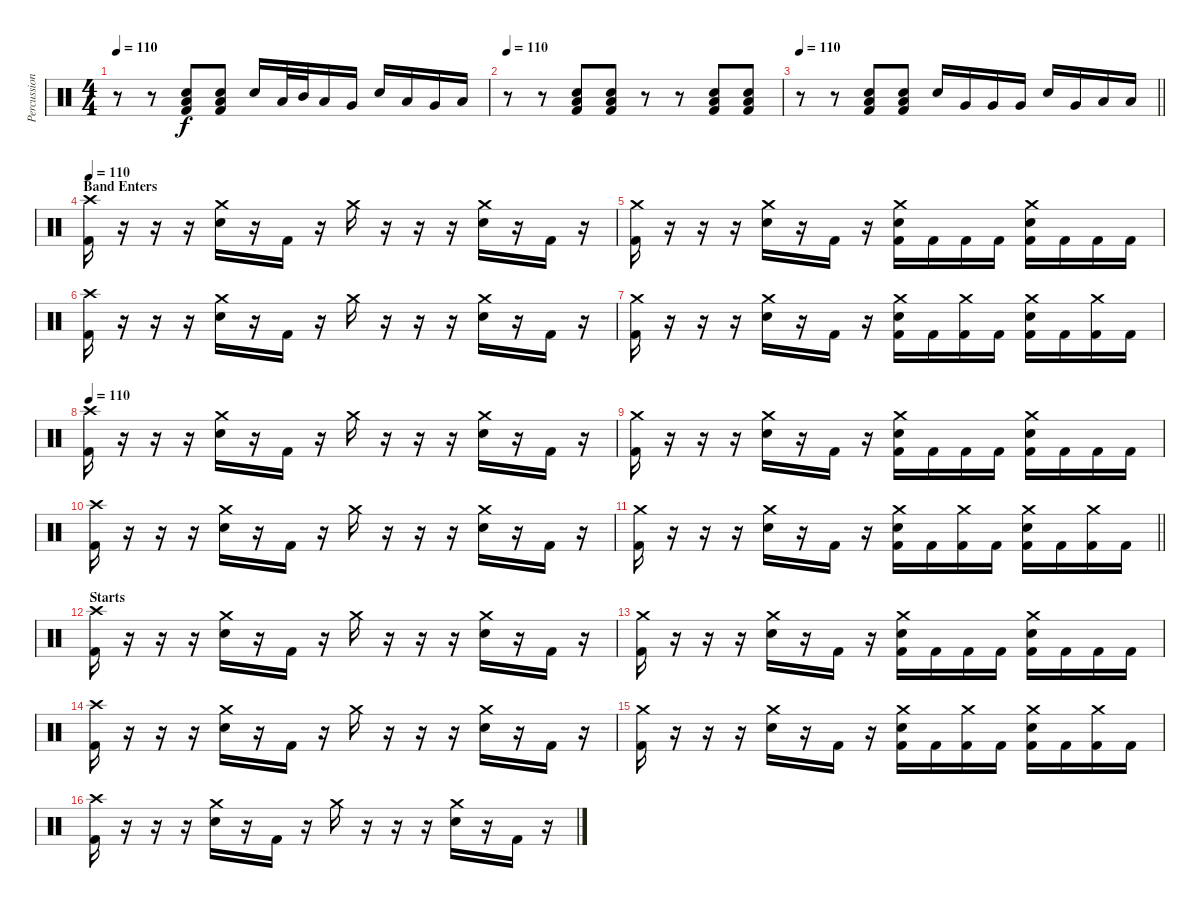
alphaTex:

\track ("Percussion" "Percussion") {instrument percussion}
\staff {score}
\articulation defaults
\ts (4 4)
\tempo 110
\clef neutral
\ks c
r.8{dy f} r.8 ("Low Floor Tom (hit)" "Electric Snare (hit)" "Kick (hit) 2").8 ("Low Floor Tom (hit)" "Electric Snare (hit)" "Kick (hit) 2").8 "Snare (hit) 2".16 "Low Tom (hit)".32 "Mid Tom (hit)".32 "Low Tom (hit)".16 "Very Low Tom (hit)".16 "Snare (hit) 2".16 "Low Tom (hit)".16 "Very Low Tom (hit)".16 "Low Floor Tom (hit)".16 |
\tempo 110
r.8 r.8 ("Low Floor Tom (hit)" "Electric Snare (hit)" "Kick (hit) 2").8 ("Low Floor Tom (hit)" "Electric Snare (hit)" "Kick (hit) 2").8 r.8 r.8 ("Low Floor Tom (hit)" "Electric Snare (hit)" "Kick (hit) 2").8 ("Low Floor Tom (hit)" "Electric Snare (hit)" "Kick (hit) 2").8 |
\tempo 110
\barLineRight lightlight
r.8 r.8 ("Low Floor Tom (hit)" "Electric Snare (hit)" "Kick (hit) 2").8 ("Low Floor Tom (hit)" "Electric Snare (hit)" "Kick (hit) 2").8 "Snare (hit) 2".16 "Very Low Tom (hit)".16 "Very Low Tom (hit)".16 "Very Low Tom (hit)".16 "Snare (hit) 2".16 "Very Low Tom (hit)".16 "Low Floor Tom (hit)".16 "Low Floor Tom (hit)".16 |
\section ("" "Band Enters")
\tempo 110
("Crash high (hit)" "Kick (hit) 2").16 r.16 r.16 r.16 ("Crash medium (hit)" "Electric Snare (hit)").16 r.16 "Kick (hit) 2".16 r.16 "Crash medium (hit)".16 r.16 r.16 r.16 ("Crash medium (hit)" "Electric Snare (hit)").16 r.16 "Kick (hit) 2".16 r.16 |
("Crash medium (hit)" "Kick (hit) 2").16 r.16 r.16 r.16 ("Crash medium (hit)" "Electric Snare (hit)").16 r.16 "Kick (hit) 2".16 r.16 ("Crash medium (hit)" "Electric Snare (hit)" "Kick (hit) 2").16 "Kick (hit) 2".16 "Kick (hit) 2".16 "Kick (hit) 2".16 ("Crash medium (hit)" "Electric Snare (hit)" "Kick (hit) 2").16 "Kick (hit) 2".16 "Kick (hit) 2".16 "Kick (hit) 2".16 |
("Crash high (hit)" "Kick (hit) 2").16 r.16 r.16 r.16 ("Crash medium (hit)" "Electric Snare (hit)").16 r.16 "Kick (hit) 2".16 r.16 "Crash medium (hit)".16 r.16 r.16 r.16 ("Crash medium (hit)" "Electric Snare (hit)").16 r.16 "Kick (hit) 2".16 r.16 |
("Crash medium (hit)" "Kick (hit) 2").16 r.16 r.16 r.16 ("Crash medium (hit)" "Electric Snare (hit)").16 r.16 "Kick (hit) 2".16 r.16 ("Crash medium (hit)" "Electric Snare (hit)" "Kick (hit) 2").16 "Kick (hit) 2".16 ("Crash medium (hit)" "Kick (hit) 2").16 "Kick (hit) 2".16 ("Crash medium (hit)" "Electric Snare (hit)" "Kick (hit) 2").16 "Kick (hit) 2".16 ("Crash medium (hit)" "Kick (hit) 2").16 "Kick (hit) 2".16 |
\tempo 110
("Crash high (hit)" "Kick (hit) 2").16 r.16 r.16 r.16 ("Crash medium (hit)" "Electric Snare (hit)").16 r.16 "Kick (hit) 2".16 r.16 "Crash medium (hit)".16 r.16 r.16 r.16 ("Crash medium (hit)" "Electric Snare (hit)").16 r.16 "Kick (hit) 2".16 r.16 |
("Crash medium (hit)" "Kick (hit) 2").16 r.16 r.16 r.16 ("Crash medium (hit)" "Electric Snare (hit)").16 r.16 "Kick (hit) 2".16 r.16 ("Crash medium (hit)" "Electric Snare (hit)" "Kick (hit) 2").16 "Kick (hit) 2".16 "Kick (hit) 2".16 "Kick (hit) 2".16 ("Crash medium (hit)" "Electric Snare (hit)" "Kick (hit) 2").16 "Kick (hit) 2".16 "Kick (hit) 2".16 "Kick (hit) 2".16 |
("Crash high (hit)" "Kick (hit) 2").16 r.16 r.16 r.16 ("Crash medium (hit)" "Electric Snare (hit)").16 r.16 "Kick (hit) 2".16 r.16 "Crash medium (hit)".16 r.16 r.16 r.16 ("Crash medium (hit)" "Electric Snare (hit)").16 r.16 "Kick (hit) 2".16 r.16 |
\barLineRight lightlight
("Crash medium (hit)" "Kick (hit) 2").16 r.16 r.16 r.16 ("Crash medium (hit)" "Electric Snare (hit)").16 r.16 "Kick (hit) 2".16 r.16 ("Crash medium (hit)" "Electric Snare (hit)" "Kick (hit) 2").16 "Kick (hit) 2".16 ("Crash medium (hit)" "Kick (hit) 2").16 "Kick (hit) 2".16 ("Crash medium (hit)" "Electric Snare (hit)" "Kick (hit) 2").16 "Kick (hit) 2".16 ("Crash medium (hit)" "Kick (hit) 2").16 "Kick (hit) 2".16 |
\section ("" "Starts")
("Crash high (hit)" "Kick (hit) 2").16 r.16 r.16 r.16 ("Crash medium (hit)" "Electric Snare (hit)").16 r.16 "Kick (hit) 2".16 r.16 "Crash medium (hit)".16 r.16 r.16 r.16 ("Crash medium (hit)" "Electric Snare (hit)").16 r.16 "Kick (hit) 2".16 r.16 |
("Crash medium (hit)" "Kick (hit) 2").16 r.16 r.16 r.16 ("Crash medium (hit)" "Electric Snare (hit)").16 r.16 "Kick (hit) 2".16 r.16 ("Crash medium (hit)" "Electric Snare (hit)" "Kick (hit) 2").16 "Kick (hit) 2".16 "Kick (hit) 2".16 "Kick (hit) 2".16 ("Crash medium (hit)" "Electric Snare (hit)" "Kick (hit) 2").16 "Kick (hit) 2".16 "Kick (hit) 2".16 "Kick (hit) 2".16 |
("Crash high (hit)" "Kick (hit) 2").16 r.16 r.16 r.16 ("Crash medium (hit)" "Electric Snare (hit)").16 r.16 "Kick (hit) 2".16 r.16 "Crash medium (hit)".16 r.16 r.16 r.16 ("Crash medium (hit)" "Electric Snare (hit)").16 r.16 "Kick (hit) 2".16 r.16 |
("Crash medium (hit)" "Kick (hit) 2").16 r.16 r.16 r.16 ("Crash medium (hit)" "Electric Snare (hit)").16 r.16 "Kick (hit) 2".16 r.16 ("Crash medium (hit)" "Electric Snare (hit)" "Kick (hit) 2").16 "Kick (hit) 2".16 ("Crash medium (hit)" "Kick (hit) 2").16 "Kick (hit) 2".16 ("Crash medium (hit)" "Electric Snare (hit)" "Kick (hit) 2").16 "Kick (hit) 2".16 ("Crash medium (hit)" "Kick (hit) 2").16 "Kick (hit) 2".16 |
("Crash high (hit)" "Kick (hit) 2").16 r.16 r.16 r.16 ("Crash medium (hit)" "Electric Snare (hit)").16 r.16 "Kick (hit) 2".16 r.16 "Crash medium (hit)".16 r.16 r.16 r.16 ("Crash medium (hit)" "Electric Snare (hit)").16 r.16 "Kick (hit) 2".16 r.16
